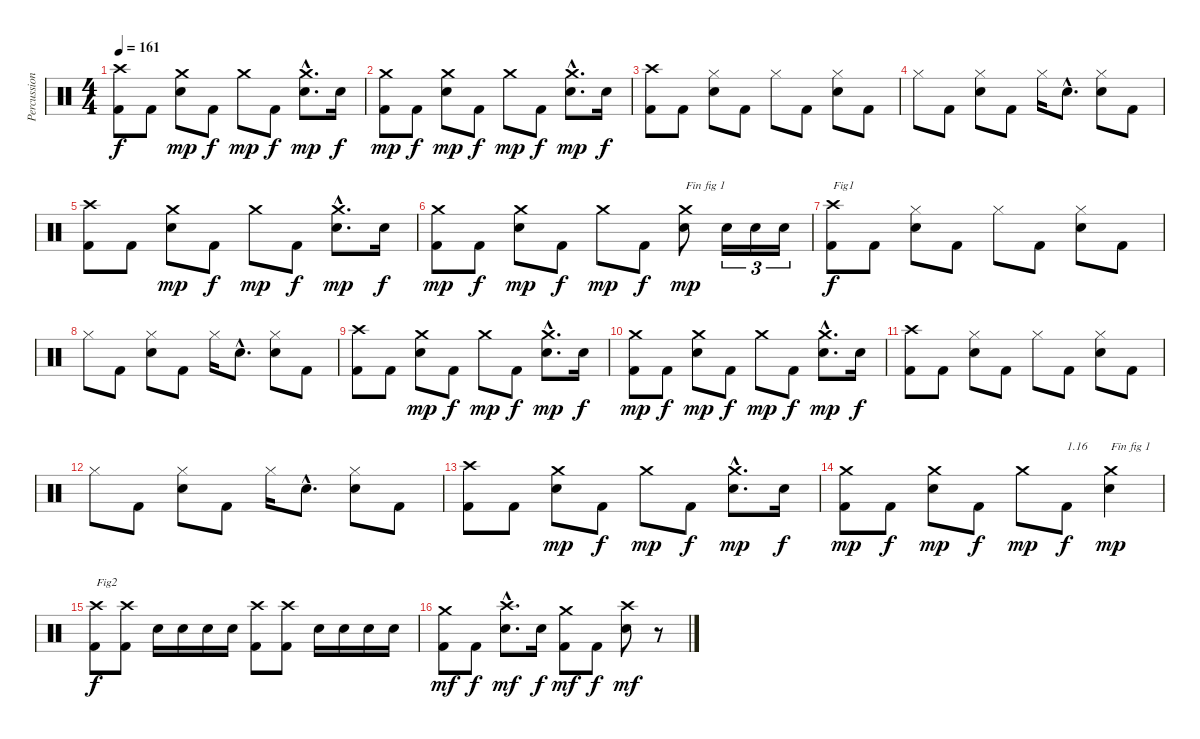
\track ("Percussions" "Percussion") {instrument percussion}
\staff {score}
\articulation defaults
\ts (4 4)
\tempo 161
\clef neutral
\ks c
("Kick (hit) 2" "Crash high (hit)").8{dy f} "Kick (hit) 2".8 ("Electric Snare (hit)" "Crash medium (hit)").8{dy mp} "Kick (hit) 2".8{dy f} "Crash medium (hit)".8{dy mp} "Kick (hit) 2".8{dy f} ("Electric Snare (hit)"{hac} "Crash medium (hit)"{hac}).8{d dy mp} "Electric Snare (hit)".16{dy f} |
("Kick (hit) 2" "Crash medium (hit)").8{dy mp} "Kick (hit) 2".8{dy f} ("Electric Snare (hit)" "Crash medium (hit)").8{dy mp} "Kick (hit) 2".8{dy f} "Crash medium (hit)".8{dy mp} "Kick (hit) 2".8{dy f} ("Electric Snare (hit)"{hac} "Crash medium (hit)"{hac}).8{d dy mp} "Electric Snare (hit)".16{dy f} |
("Kick (hit) 2" "Crash high (hit)").8 "Kick (hit) 2".8 ("Electric Snare (hit)" "Hi-Hat (closed)").8 "Kick (hit) 2".8 "Hi-Hat (closed)".8 "Kick (hit) 2".8 ("Electric Snare (hit)" "Hi-Hat (closed)").8 "Kick (hit) 2".8 |
"Hi-Hat (closed)".8 "Kick (hit) 2".8 ("Electric Snare (hit)" "Hi-Hat (closed)").8 "Kick (hit) 2".8 "Hi-Hat (closed)".16 "Electric Snare (hit)"{hac}.8{d} ("Electric Snare (hit)" "Hi-Hat (closed)").8 "Kick (hit) 2".8 |
("Kick (hit) 2" "Crash high (hit)").8 "Kick (hit) 2".8 ("Electric Snare (hit)" "Crash medium (hit)").8{dy mp} "Kick (hit) 2".8{dy f} "Crash medium (hit)".8{dy mp} "Kick (hit) 2".8{dy f} ("Electric Snare (hit)"{hac} "Crash medium (hit)"{hac}).8{d dy mp} "Electric Snare (hit)".16{dy f} |
("Kick (hit) 2" "Crash medium (hit)").8{dy mp} "Kick (hit) 2".8{dy f} ("Electric Snare (hit)" "Crash medium (hit)").8{dy mp} "Kick (hit) 2".8{dy f} "Crash medium (hit)".8{dy mp} "Kick (hit) 2".8{dy f} ("Electric Snare (hit)" "Crash medium (hit)").8{txt "Fin fig 1" dy mp} "Electric Snare (hit)".16{tu (3 2)} "Electric Snare (hit)".16{tu (3 2)} "Electric Snare (hit)".16{tu (3 2)} |
("Kick (hit) 2" "Crash high (hit)").8{txt "Fig1" dy f} "Kick (hit) 2".8 ("Electric Snare (hit)" "Hi-Hat (closed)").8 "Kick (hit) 2".8 "Hi-Hat (closed)".8 "Kick (hit) 2".8 ("Electric Snare (hit)" "Hi-Hat (closed)").8 "Kick (hit) 2".8 |
"Hi-Hat (closed)".8 "Kick (hit) 2".8 ("Electric Snare (hit)" "Hi-Hat (closed)").8 "Kick (hit) 2".8 "Hi-Hat (closed)".16 "Electric Snare (hit)"{hac}.8{d} ("Electric Snare (hit)" "Hi-Hat (closed)").8 "Kick (hit) 2".8 |
("Kick (hit) 2" "Crash high (hit)").8 "Kick (hit) 2".8 ("Electric Snare (hit)" "Crash medium (hit)").8{dy mp} "Kick (hit) 2".8{dy f} "Crash medium (hit)".8{dy mp} "Kick (hit) 2".8{dy f} ("Electric Snare (hit)"{hac} "Crash medium (hit)"{hac}).8{d dy mp} "Electric Snare (hit)".16{dy f} |
("Kick (hit) 2" "Crash medium (hit)").8{dy mp} "Kick (hit) 2".8{dy f} ("Electric Snare (hit)" "Crash medium (hit)").8{dy mp} "Kick (hit) 2".8{dy f} "Crash medium (hit)".8{dy mp} "Kick (hit) 2".8{dy f} ("Electric Snare (hit)"{hac} "Crash medium (hit)"{hac}).8{d dy mp} "Electric Snare (hit)".16{dy f} |
("Kick (hit) 2" "Crash high (hit)").8 "Kick (hit) 2".8 ("Electric Snare (hit)" "Hi-Hat (closed)").8 "Kick (hit) 2".8 "Hi-Hat (closed)".8 "Kick (hit) 2".8 ("Electric Snare (hit)" "Hi-Hat (closed)").8 "Kick (hit) 2".8 |
"Hi-Hat (closed)".8 "Kick (hit) 2".8 ("Electric Snare (hit)" "Hi-Hat (closed)").8 "Kick (hit) 2".8 "Hi-Hat (closed)".16 "Electric Snare (hit)"{hac}.8{d} ("Electric Snare (hit)" "Hi-Hat (closed)").8 "Kick (hit) 2".8 |
("Kick (hit) 2" "Crash high (hit)").8 "Kick (hit) 2".8 ("Electric Snare (hit)" "Crash medium (hit)").8{dy mp} "Kick (hit) 2".8{dy f} "Crash medium (hit)".8{dy mp} "Kick (hit) 2".8{dy f} ("Electric Snare (hit)"{hac} "Crash medium (hit)"{hac}).8{d dy mp} "Electric Snare (hit)".16{dy f} |
("Kick (hit) 2" "Crash medium (hit)").8{dy mp} "Kick (hit) 2".8{dy f} ("Electric Snare (hit)" "Crash medium (hit)").8{dy mp} "Kick (hit) 2".8{dy f} "Crash medium (hit)".8{dy mp} "Kick (hit) 2".8{txt "1.16" dy f} ("Electric Snare (hit)" "Crash medium (hit)").4{txt "Fin fig 1" dy mp} |
("Kick (hit) 2" "Crash high (hit)").8{txt "Fig2" dy f} ("Kick (hit) 2" "Crash high (hit)").8 "Electric Snare (hit)".16 "Electric Snare (hit)".16 "Electric Snare (hit)".16 "Electric Snare (hit)".16 ("Kick (hit) 2" "Crash high (hit)").8 ("Kick (hit) 2" "Crash high (hit)").8 "Electric Snare (hit)".16 "Electric Snare (hit)".16 "Electric Snare (hit)".16 "Electric Snare (hit)".16 |
("Kick (hit) 2" "Crash medium (hit)").8{dy mf} "Kick (hit) 2".8{dy f} ("Electric Snare (hit)"{hac} "Crash high (hit)"{hac}).8{d dy mf} "Electric Snare (hit)".16{dy f} ("Kick (hit) 2" "Crash medium (hit)").8{dy mf} "Kick (hit) 2".8{dy f} ("Electric Snare (hit)" "Crash high (hit)").8{dy mf} r.8
